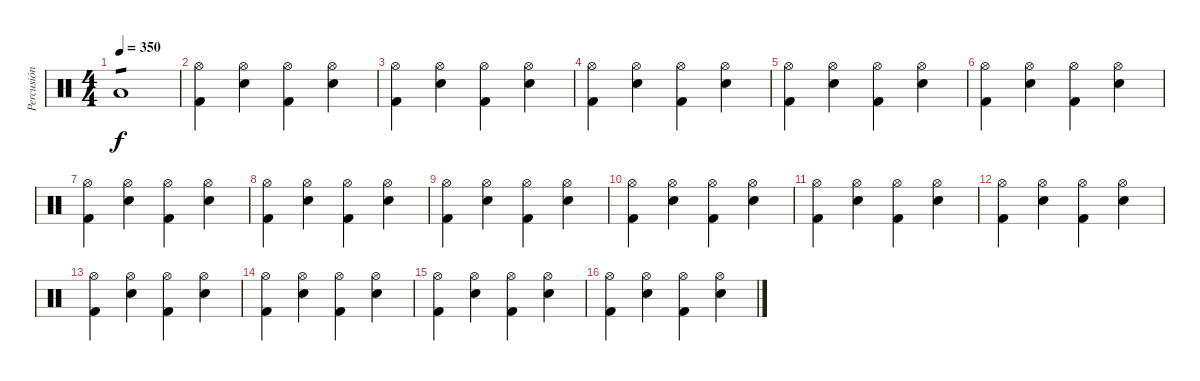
\track ("Percusión" "Percusión") {instrument percussion}
\staff {score}
\articulation defaults
\ts (4 4)
\tempo 350
\clef neutral
\ks c "Low Tom (hit)".1{tp 1 dy f}
|
("Hi-Hat (open)" "Kick (hit) 2").4 ("Hi-Hat (open)" "Electric Snare (hit)").4 ("Hi-Hat (open)" "Kick (hit) 2").4 ("Hi-Hat (open)" "Electric Snare (hit)").4 |
("Hi-Hat (open)" "Kick (hit) 2").4 ("Hi-Hat (open)" "Electric Snare (hit)").4 ("Hi-Hat (open)" "Kick (hit) 2").4 ("Hi-Hat (open)" "Electric Snare (hit)").4 |
("Hi-Hat (open)" "Kick (hit) 2").4 ("Hi-Hat (open)" "Electric Snare (hit)").4 ("Hi-Hat (open)" "Kick (hit) 2").4 ("Hi-Hat (open)" "Electric Snare (hit)").4 |
("Hi-Hat (open)" "Kick (hit) 2").4 ("Hi-Hat (open)" "Electric Snare (hit)").4 ("Hi-Hat (open)" "Kick (hit) 2").4 ("Hi-Hat (open)" "Electric Snare (hit)").4 |
("Hi-Hat (open)" "Kick (hit) 2").4 ("Hi-Hat (open)" "Electric Snare (hit)").4 ("Hi-Hat (open)" "Kick (hit) 2").4 ("Hi-Hat (open)" "Electric Snare (hit)").4 |
("Hi-Hat (open)" "Kick (hit) 2").4 ("Hi-Hat (open)" "Electric Snare (hit)").4 ("Hi-Hat (open)" "Kick (hit) 2").4 ("Hi-Hat (open)" "Electric Snare (hit)").4 |
("Hi-Hat (open)" "Kick (hit) 2").4 ("Hi-Hat (open)" "Electric Snare (hit)").4 ("Hi-Hat (open)" "Kick (hit) 2").4 ("Hi-Hat (open)" "Electric Snare (hit)").4 |
("Hi-Hat (open)" "Kick (hit) 2").4 ("Hi-Hat (open)" "Electric Snare (hit)").4 ("Hi-Hat (open)" "Kick (hit) 2").4 ("Hi-Hat (open)" "Electric Snare (hit)").4 |
("Hi-Hat (open)" "Kick (hit) 2").4 ("Hi-Hat (open)" "Electric Snare (hit)").4 ("Hi-Hat (open)" "Kick (hit) 2").4 ("Hi-Hat (open)" "Electric Snare (hit)").4 |
("Hi-Hat (open)" "Kick (hit) 2").4 ("Hi-Hat (open)" "Electric Snare (hit)").4 ("Hi-Hat (open)" "Kick (hit) 2").4 ("Hi-Hat (open)" "Electric Snare (hit)").4 |
("Hi-Hat (open)" "Kick (hit) 2").4 ("Hi-Hat (open)" "Electric Snare (hit)").4 ("Hi-Hat (open)" "Kick (hit) 2").4 ("Hi-Hat (open)" "Electric Snare (hit)").4 |
("Hi-Hat (open)" "Kick (hit) 2").4 ("Hi-Hat (open)" "Electric Snare (hit)").4 ("Hi-Hat (open)" "Kick (hit) 2").4 ("Hi-Hat (open)" "Electric Snare (hit)").4 |
("Hi-Hat (open)" "Kick (hit) 2").4 ("Hi-Hat (open)" "Electric Snare (hit)").4 ("Hi-Hat (open)" "Kick (hit) 2").4 ("Hi-Hat (open)" "Electric Snare (hit)").4 |
("Hi-Hat (open)" "Kick (hit) 2").4 ("Hi-Hat (open)" "Electric Snare (hit)").4 ("Hi-Hat (open)" "Kick (hit) 2").4 ("Hi-Hat (open)" "Electric Snare (hit)").4 |
("Hi-Hat (open)" "Kick (hit) 2").4 ("Hi-Hat (open)" "Electric Snare (hit)").4 ("Hi-Hat (open)" "Kick (hit) 2").4 ("Hi-Hat (open)" "Electric Snare (hit)").4
